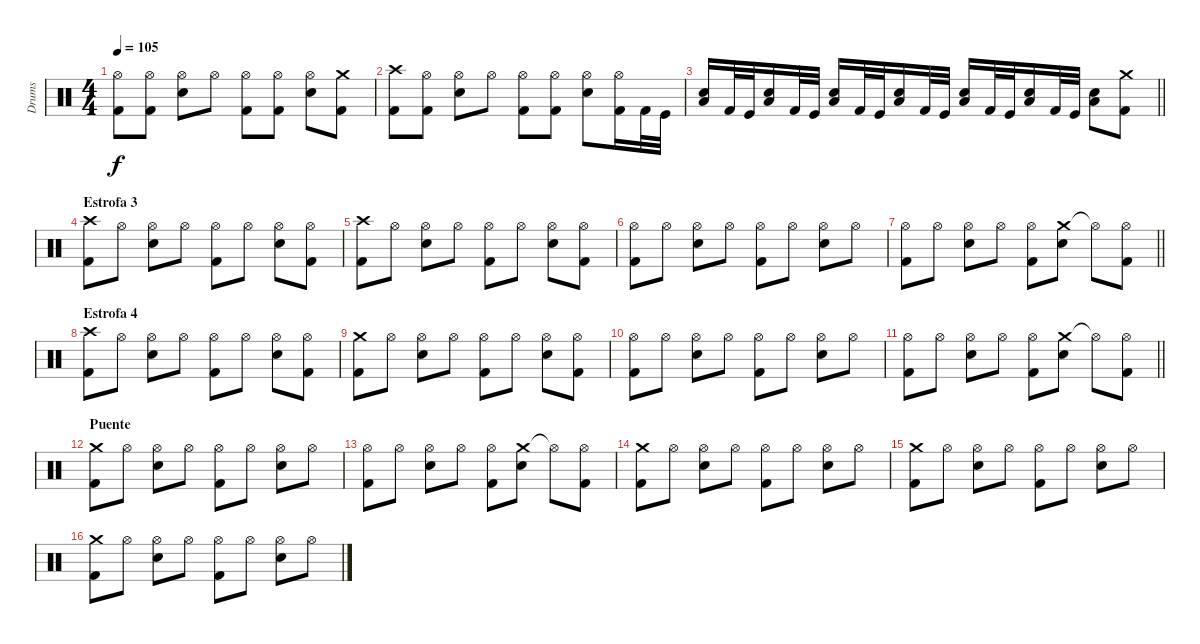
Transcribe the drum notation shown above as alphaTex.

\track ("Drums" "Drums") {instrument percussion}
\staff {score}
\articulation defaults
\ts (4 4)
\tempo 105
\clef neutral
\ks c
("Hi-Hat (open)" "Kick (hit) 2").8{dy f} ("Hi-Hat (open)" "Kick (hit) 2").8 ("Hi-Hat (open)" "Snare (hit) 2").8 "Hi-Hat (open)".8 ("Hi-Hat (open)" "Kick (hit) 2").8 ("Hi-Hat (open)" "Kick (hit) 2").8 ("Hi-Hat (open)" "Snare (hit) 2").8 ("Crash medium (hit)" "Kick (hit) 2").8 |
("Crash high (hit)" "Kick (hit) 2").8 ("Hi-Hat (open)" "Kick (hit) 2").8 ("Hi-Hat (open)" "Snare (hit) 2").8 "Hi-Hat (open)".8 ("Hi-Hat (open)" "Kick (hit) 2").8 ("Hi-Hat (open)" "Kick (hit) 2").8 ("Hi-Hat (open)" "Snare (hit) 2").8 ("Hi-Hat (open)" "Kick (hit) 2").16 "Kick (hit) 2".32 "Kick (hit)".32 |
\barLineRight lightlight
("Low Floor Tom (hit)" "Snare (hit) 2").16 "Kick (hit) 2".32 "Kick (hit)".32 ("Low Floor Tom (hit)" "Snare (hit) 2").16 "Kick (hit) 2".32 "Kick (hit)".32 ("Low Floor Tom (hit)" "Snare (hit) 2").16 "Kick (hit) 2".32 "Kick (hit)".32 ("Low Floor Tom (hit)" "Snare (hit) 2").16 "Kick (hit) 2".32 "Kick (hit)".32 ("Low Floor Tom (hit)" "Snare (hit) 2").16 "Kick (hit) 2".32 "Kick (hit)".32 ("Low Floor Tom (hit)" "Snare (hit) 2").16 "Kick (hit) 2".32 "Kick (hit)".32 ("Low Floor Tom (hit)" "Snare (hit) 2").8 ("Crash medium (hit)" "Kick (hit) 2").8 |
\section ("" "Estrofa 3")
("Crash high (hit)" "Kick (hit) 2").8 "Hi-Hat (open)".8 ("Hi-Hat (open)" "Snare (hit) 2").8 "Hi-Hat (open)".8 ("Hi-Hat (open)" "Kick (hit) 2").8 "Hi-Hat (open)".8 ("Hi-Hat (open)" "Snare (hit) 2").8 ("Hi-Hat (open)" "Kick (hit) 2").8 |
("Crash high (hit)" "Kick (hit) 2").8 "Hi-Hat (open)".8 ("Hi-Hat (open)" "Snare (hit) 2").8 "Hi-Hat (open)".8 ("Hi-Hat (open)" "Kick (hit) 2").8 "Hi-Hat (open)".8 ("Hi-Hat (open)" "Snare (hit) 2").8 ("Hi-Hat (open)" "Kick (hit) 2").8 |
("Hi-Hat (open)" "Kick (hit) 2").8 "Hi-Hat (open)".8 ("Hi-Hat (open)" "Snare (hit) 2").8 "Hi-Hat (open)".8 ("Hi-Hat (open)" "Kick (hit) 2").8 "Hi-Hat (open)".8 ("Hi-Hat (open)" "Snare (hit) 2").8 "Hi-Hat (open)".8 |
\barLineRight lightlight
("Hi-Hat (open)" "Kick (hit) 2").8 "Hi-Hat (open)".8 ("Hi-Hat (open)" "Snare (hit) 2").8 "Hi-Hat (open)".8 ("Hi-Hat (open)" "Kick (hit) 2").8 ("Crash medium (hit)" "Snare (hit) 2").8 "Hi-Hat (open)"{t}.8 ("Hi-Hat (open)" "Kick (hit) 2").8 |
\section ("" "Estrofa 4")
("Crash high (hit)" "Kick (hit) 2").8 "Hi-Hat (open)".8 ("Hi-Hat (open)" "Snare (hit) 2").8 "Hi-Hat (open)".8 ("Hi-Hat (open)" "Kick (hit) 2").8 "Hi-Hat (open)".8 ("Hi-Hat (open)" "Snare (hit) 2").8 ("Hi-Hat (open)" "Kick (hit) 2").8 |
("Crash medium (hit)" "Kick (hit) 2").8 "Hi-Hat (open)".8 ("Hi-Hat (open)" "Snare (hit) 2").8 "Hi-Hat (open)".8 ("Hi-Hat (open)" "Kick (hit) 2").8 "Hi-Hat (open)".8 ("Hi-Hat (open)" "Snare (hit) 2").8 ("Hi-Hat (open)" "Kick (hit) 2").8 |
("Hi-Hat (open)" "Kick (hit) 2").8 "Hi-Hat (open)".8 ("Hi-Hat (open)" "Snare (hit) 2").8 "Hi-Hat (open)".8 ("Hi-Hat (open)" "Kick (hit) 2").8 "Hi-Hat (open)".8 ("Hi-Hat (open)" "Snare (hit) 2").8 "Hi-Hat (open)".8 |
\barLineRight lightlight
("Hi-Hat (open)" "Kick (hit) 2").8 "Hi-Hat (open)".8 ("Hi-Hat (open)" "Snare (hit) 2").8 "Hi-Hat (open)".8 ("Hi-Hat (open)" "Kick (hit) 2").8 ("Crash medium (hit)" "Snare (hit) 2").8 "Hi-Hat (open)"{t}.8 ("Hi-Hat (open)" "Kick (hit) 2").8 |
\section ("" "Puente")
("Crash medium (hit)" "Kick (hit) 2").8 "Hi-Hat (open)".8 ("Hi-Hat (open)" "Snare (hit) 2").8 "Hi-Hat (open)".8 ("Hi-Hat (open)" "Kick (hit) 2").8 "Hi-Hat (open)".8 ("Hi-Hat (open)" "Snare (hit) 2").8 "Hi-Hat (open)".8 |
("Hi-Hat (open)" "Kick (hit) 2").8 "Hi-Hat (open)".8 ("Hi-Hat (open)" "Snare (hit) 2").8 "Hi-Hat (open)".8 ("Hi-Hat (open)" "Kick (hit) 2").8 ("Crash medium (hit)" "Snare (hit) 2").8 "Hi-Hat (open)"{t}.8 ("Hi-Hat (open)" "Kick (hit) 2").8 |
("Crash medium (hit)" "Kick (hit) 2").8 "Hi-Hat (open)".8 ("Hi-Hat (open)" "Snare (hit) 2").8 "Hi-Hat (open)".8 ("Hi-Hat (open)" "Kick (hit) 2").8 "Hi-Hat (open)".8 ("Hi-Hat (open)" "Snare (hit) 2").8 "Hi-Hat (open)".8 |
("Crash medium (hit)" "Kick (hit) 2").8 "Hi-Hat (open)".8 ("Hi-Hat (open)" "Snare (hit) 2").8 "Hi-Hat (open)".8 ("Hi-Hat (open)" "Kick (hit) 2").8 "Hi-Hat (open)".8 ("Hi-Hat (open)" "Snare (hit) 2").8 "Hi-Hat (open)".8 |
("Crash medium (hit)" "Kick (hit) 2").8 "Hi-Hat (open)".8 ("Hi-Hat (open)" "Snare (hit) 2").8 "Hi-Hat (open)".8 ("Hi-Hat (open)" "Kick (hit) 2").8 "Hi-Hat (open)".8 ("Hi-Hat (open)" "Snare (hit) 2").8 "Hi-Hat (open)".8
